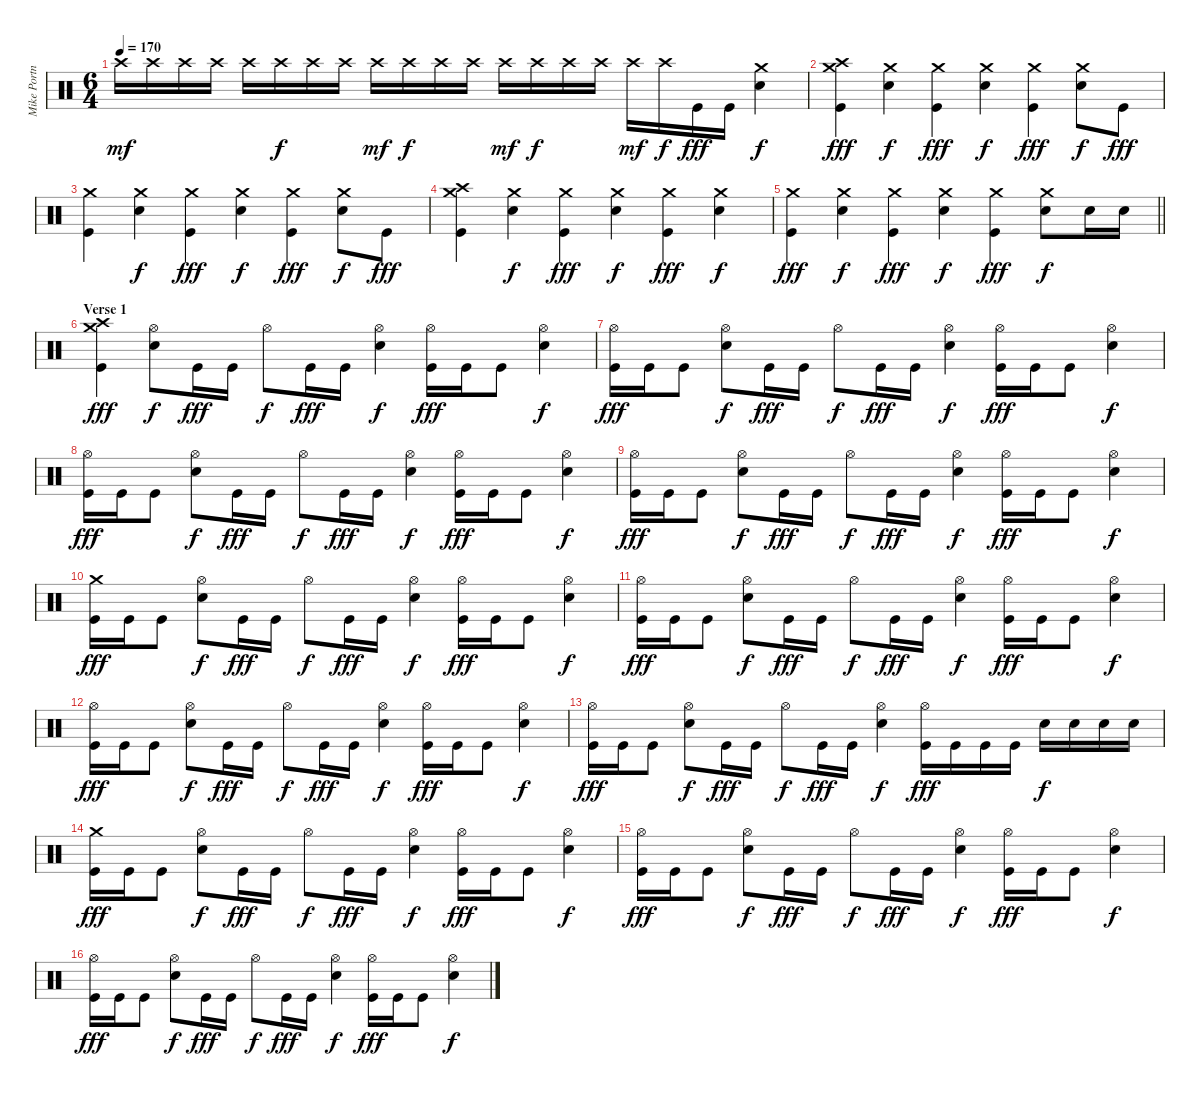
\track ("Mike Portnoy" "Mike Portn") {instrument percussion}
\staff {score}
\articulation defaults
\ts (6 4)
\tempo 170
\clef neutral
\ks c "Crash high (hit)".16{dy mf} "Crash high (hit)".16 "Crash high (hit)".16 "Crash high (hit)".16 "Crash high (hit)".16 "Crash high (hit)".16{dy f} "Crash high (hit)".16 "Crash high (hit)".16 "Crash high (hit)".16{dy mf} "Crash high (hit)".16{dy f} "Crash high (hit)".16 "Crash high (hit)".16 "Crash high (hit)".16{dy mf} "Crash high (hit)".16{dy f} "Crash high (hit)".16 "Crash high (hit)".16 "Crash high (hit)".16{dy mf} "Crash high (hit)".16{dy f} "Kick (hit)".16{dy fff} "Kick (hit)".16
("Crash medium (hit)" "Electric Snare (hit)").4{dy f} |
("Crash high (hit)" "Crash medium (hit)" "Kick (hit)").4{dy fff} ("Crash medium (hit)" "Electric Snare (hit)").4{dy f} ("Crash medium (hit)" "Kick (hit)").4{dy fff} ("Crash medium (hit)" "Electric Snare (hit)").4{dy f} ("Crash medium (hit)" "Kick (hit)").4{dy fff} ("Crash medium (hit)" "Electric Snare (hit)").8{dy f} "Kick (hit)".8{dy fff} |
("Crash medium (hit)" "Kick (hit)").4 ("Crash medium (hit)" "Electric Snare (hit)").4{dy f} ("Crash medium (hit)" "Kick (hit)").4{dy fff} ("Crash medium (hit)" "Electric Snare (hit)").4{dy f} ("Crash medium (hit)" "Kick (hit)").4{dy fff} ("Crash medium (hit)" "Electric Snare (hit)").8{dy f} "Kick (hit)".8{dy fff} |
("Crash high (hit)" "Crash medium (hit)" "Kick (hit)").4 ("Crash medium (hit)" "Electric Snare (hit)").4{dy f} ("Crash medium (hit)" "Kick (hit)").4{dy fff} ("Crash medium (hit)" "Electric Snare (hit)").4{dy f} ("Crash medium (hit)" "Kick (hit)").4{dy fff} ("Crash medium (hit)" "Electric Snare (hit)").4{dy f} |
\barLineRight lightlight
("Crash medium (hit)" "Kick (hit)").4{dy fff} ("Crash medium (hit)" "Electric Snare (hit)").4{dy f} ("Crash medium (hit)" "Kick (hit)").4{dy fff} ("Crash medium (hit)" "Electric Snare (hit)").4{dy f} ("Crash medium (hit)" "Kick (hit)").4{dy fff} ("Crash medium (hit)" "Electric Snare (hit)").8{dy f} "Electric Snare (hit)".16 "Electric Snare (hit)".16 |
\section ("" "Verse 1")
("Crash high (hit)" "Crash medium (hit)" "Kick (hit)").4{dy fff} ("Hi-Hat (open)" "Electric Snare (hit)").8{dy f} "Kick (hit)".16{dy fff} "Kick (hit)".16 "Hi-Hat (open)".8{dy f} "Kick (hit)".16{dy fff} "Kick (hit)".16 ("Hi-Hat (open)" "Electric Snare (hit)").4{dy f} ("Hi-Hat (open)" "Kick (hit)").16{dy fff} "Kick (hit)".16 "Kick (hit)".8 ("Hi-Hat (open)" "Electric Snare (hit)").4{dy f} |
("Hi-Hat (open)" "Kick (hit)").16{dy fff} "Kick (hit)".16 "Kick (hit)".8 ("Hi-Hat (open)" "Electric Snare (hit)").8{dy f} "Kick (hit)".16{dy fff} "Kick (hit)".16 "Hi-Hat (open)".8{dy f} "Kick (hit)".16{dy fff} "Kick (hit)".16 ("Hi-Hat (open)" "Electric Snare (hit)").4{dy f} ("Hi-Hat (open)" "Kick (hit)").16{dy fff} "Kick (hit)".16 "Kick (hit)".8 ("Hi-Hat (open)" "Electric Snare (hit)").4{dy f} |
("Hi-Hat (open)" "Kick (hit)").16{dy fff} "Kick (hit)".16 "Kick (hit)".8 ("Hi-Hat (open)" "Electric Snare (hit)").8{dy f} "Kick (hit)".16{dy fff} "Kick (hit)".16 "Hi-Hat (open)".8{dy f} "Kick (hit)".16{dy fff} "Kick (hit)".16 ("Hi-Hat (open)" "Electric Snare (hit)").4{dy f} ("Hi-Hat (open)" "Kick (hit)").16{dy fff} "Kick (hit)".16 "Kick (hit)".8 ("Hi-Hat (open)" "Electric Snare (hit)").4{dy f} |
("Hi-Hat (open)" "Kick (hit)").16{dy fff} "Kick (hit)".16 "Kick (hit)".8 ("Hi-Hat (open)" "Electric Snare (hit)").8{dy f} "Kick (hit)".16{dy fff} "Kick (hit)".16 "Hi-Hat (open)".8{dy f} "Kick (hit)".16{dy fff} "Kick (hit)".16 ("Hi-Hat (open)" "Electric Snare (hit)").4{dy f} ("Hi-Hat (open)" "Kick (hit)").16{dy fff} "Kick (hit)".16 "Kick (hit)".8 ("Hi-Hat (open)" "Electric Snare (hit)").4{dy f} |
("Crash medium (hit)" "Kick (hit)").16{dy fff} "Kick (hit)".16 "Kick (hit)".8 ("Hi-Hat (open)" "Electric Snare (hit)").8{dy f} "Kick (hit)".16{dy fff} "Kick (hit)".16 "Hi-Hat (open)".8{dy f} "Kick (hit)".16{dy fff} "Kick (hit)".16 ("Hi-Hat (open)" "Electric Snare (hit)").4{dy f} ("Hi-Hat (open)" "Kick (hit)").16{dy fff} "Kick (hit)".16 "Kick (hit)".8 ("Hi-Hat (open)" "Electric Snare (hit)").4{dy f} |
("Hi-Hat (open)" "Kick (hit)").16{dy fff} "Kick (hit)".16 "Kick (hit)".8 ("Hi-Hat (open)" "Electric Snare (hit)").8{dy f} "Kick (hit)".16{dy fff} "Kick (hit)".16 "Hi-Hat (open)".8{dy f} "Kick (hit)".16{dy fff} "Kick (hit)".16 ("Hi-Hat (open)" "Electric Snare (hit)").4{dy f} ("Hi-Hat (open)" "Kick (hit)").16{dy fff} "Kick (hit)".16 "Kick (hit)".8 ("Hi-Hat (open)" "Electric Snare (hit)").4{dy f} |
("Hi-Hat (open)" "Kick (hit)").16{dy fff} "Kick (hit)".16 "Kick (hit)".8 ("Hi-Hat (open)" "Electric Snare (hit)").8{dy f} "Kick (hit)".16{dy fff} "Kick (hit)".16 "Hi-Hat (open)".8{dy f} "Kick (hit)".16{dy fff} "Kick (hit)".16 ("Hi-Hat (open)" "Electric Snare (hit)").4{dy f} ("Hi-Hat (open)" "Kick (hit)").16{dy fff} "Kick (hit)".16 "Kick (hit)".8 ("Hi-Hat (open)" "Electric Snare (hit)").4{dy f} |
("Hi-Hat (open)" "Kick (hit)").16{dy fff} "Kick (hit)".16 "Kick (hit)".8 ("Hi-Hat (open)" "Electric Snare (hit)").8{dy f} "Kick (hit)".16{dy fff} "Kick (hit)".16 "Hi-Hat (open)".8{dy f} "Kick (hit)".16{dy fff} "Kick (hit)".16 ("Hi-Hat (open)" "Electric Snare (hit)").4{dy f} ("Hi-Hat (open)" "Kick (hit)").16{dy fff} "Kick (hit)".16 "Kick (hit)".16 "Kick (hit)".16 "Electric Snare (hit)".16{dy f} "Electric Snare (hit)".16 "Electric Snare (hit)".16 "Electric Snare (hit)".16 |
("Crash medium (hit)" "Kick (hit)").16{dy fff} "Kick (hit)".16 "Kick (hit)".8 ("Hi-Hat (open)" "Electric Snare (hit)").8{dy f} "Kick (hit)".16{dy fff} "Kick (hit)".16 "Hi-Hat (open)".8{dy f} "Kick (hit)".16{dy fff} "Kick (hit)".16 ("Hi-Hat (open)" "Electric Snare (hit)").4{dy f} ("Hi-Hat (open)" "Kick (hit)").16{dy fff} "Kick (hit)".16 "Kick (hit)".8 ("Hi-Hat (open)" "Electric Snare (hit)").4{dy f} |
("Hi-Hat (open)" "Kick (hit)").16{dy fff} "Kick (hit)".16 "Kick (hit)".8 ("Hi-Hat (open)" "Electric Snare (hit)").8{dy f} "Kick (hit)".16{dy fff} "Kick (hit)".16 "Hi-Hat (open)".8{dy f} "Kick (hit)".16{dy fff} "Kick (hit)".16 ("Hi-Hat (open)" "Electric Snare (hit)").4{dy f} ("Hi-Hat (open)" "Kick (hit)").16{dy fff} "Kick (hit)".16 "Kick (hit)".8 ("Hi-Hat (open)" "Electric Snare (hit)").4{dy f} |
("Hi-Hat (open)" "Kick (hit)").16{dy fff} "Kick (hit)".16 "Kick (hit)".8 ("Hi-Hat (open)" "Electric Snare (hit)").8{dy f} "Kick (hit)".16{dy fff} "Kick (hit)".16 "Hi-Hat (open)".8{dy f} "Kick (hit)".16{dy fff} "Kick (hit)".16 ("Hi-Hat (open)" "Electric Snare (hit)").4{dy f} ("Hi-Hat (open)" "Kick (hit)").16{dy fff} "Kick (hit)".16 "Kick (hit)".8 ("Hi-Hat (open)" "Electric Snare (hit)").4{dy f}
